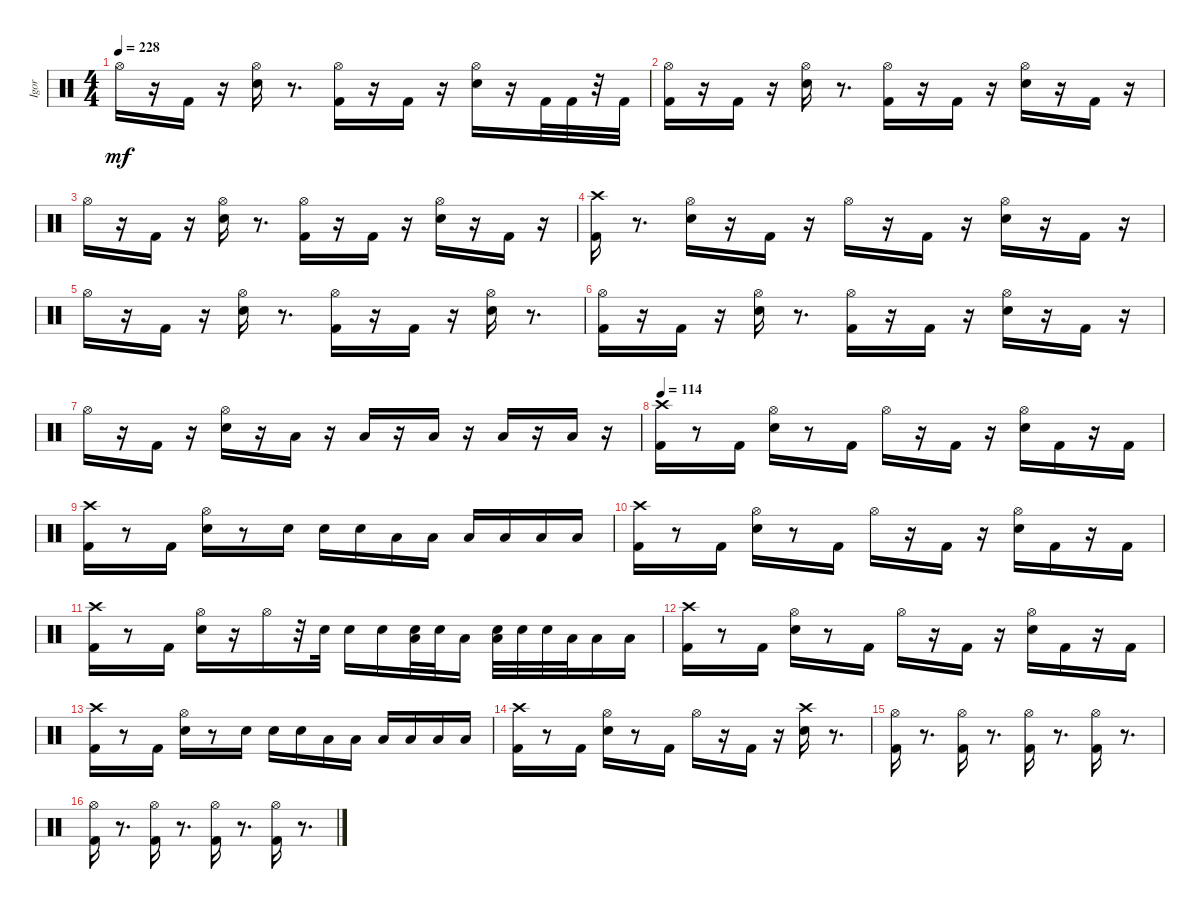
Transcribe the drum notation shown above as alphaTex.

\track ("Igor" "Igor") {instrument percussion}
\staff {score}
\articulation defaults
\ts (4 4)
\tempo 228
\clef neutral
\ks c "Hi-Hat (open)".16{dy mf}
r.16 "Kick (hit) 2".16 r.16 ("Snare (hit) 2" "Hi-Hat (open)").16 r.8{d} ("Kick (hit) 2" "Hi-Hat (open)").16 r.16 "Kick (hit) 2".16 r.16 ("Snare (hit) 2" "Hi-Hat (open)").16 r.16 "Kick (hit) 2".32 "Kick (hit) 2".32 r.32 "Kick (hit) 2".32 |
("Kick (hit) 2" "Hi-Hat (open)").16 r.16 "Kick (hit) 2".16 r.16 ("Snare (hit) 2" "Hi-Hat (open)").16 r.8{d} ("Kick (hit) 2" "Hi-Hat (open)").16 r.16 "Kick (hit) 2".16 r.16 ("Snare (hit) 2" "Hi-Hat (open)").16 r.16 "Kick (hit) 2".16 r.16 |
"Hi-Hat (open)".16 r.16 "Kick (hit) 2".16 r.16 ("Snare (hit) 2" "Hi-Hat (open)").16 r.8{d} ("Kick (hit) 2" "Hi-Hat (open)").16 r.16 "Kick (hit) 2".16 r.16 ("Snare (hit) 2" "Hi-Hat (open)").16 r.16 "Kick (hit) 2".16 r.16 |
("Kick (hit) 2" "Crash high (hit)").16 r.8{d} ("Snare (hit) 2" "Hi-Hat (open)").16 r.16 "Kick (hit) 2".16 r.16 "Hi-Hat (open)".16 r.16 "Kick (hit) 2".16 r.16 ("Snare (hit) 2" "Hi-Hat (open)").16 r.16 "Kick (hit) 2".16 r.16 |
"Hi-Hat (open)".16 r.16 "Kick (hit) 2".16 r.16 ("Snare (hit) 2" "Hi-Hat (open)").16 r.8{d} ("Kick (hit) 2" "Hi-Hat (open)").16 r.16 "Kick (hit) 2".16 r.16 ("Snare (hit) 2" "Hi-Hat (open)").16 r.8{d} |
("Kick (hit) 2" "Hi-Hat (open)").16 r.16 "Kick (hit) 2".16 r.16 ("Snare (hit) 2" "Hi-Hat (open)").16 r.8{d} ("Kick (hit) 2" "Hi-Hat (open)").16 r.16 "Kick (hit) 2".16 r.16 ("Snare (hit) 2" "Hi-Hat (open)").16 r.16 "Kick (hit) 2".16 r.16 |
"Hi-Hat (open)".16 r.16 "Kick (hit) 2".16 r.16 ("Snare (hit) 2" "Hi-Hat (open)").16 r.16 "Low Tom (hit)".16 r.16 "Low Tom (hit)".16 r.16 "Low Tom (hit)".16 r.16 "Low Tom (hit)".16 r.16 "Low Tom (hit)".16 r.16 |
\tempo 114
("Crash high (hit)" "Kick (hit) 2").16 r.8 "Kick (hit) 2".16 ("Snare (hit) 2" "Hi-Hat (open)").16 r.8 "Kick (hit) 2".16 "Hi-Hat (open)".16 r.16 "Kick (hit) 2".16 r.16 ("Hi-Hat (open)" "Snare (hit) 2").16 "Kick (hit) 2".16 r.16 "Kick (hit) 2".16 |
("Kick (hit) 2" "Crash high (hit)").16 r.8 "Kick (hit) 2".16 ("Snare (hit) 2" "Hi-Hat (open)").16 r.8 "Snare (hit) 2".16 "Snare (hit) 2".16 "Snare (hit) 2".16 "Low Tom (hit)".16 "Low Tom (hit)".16 "Low Tom (hit)".16 "Low Tom (hit)".16 "Low Floor Tom (hit)".16 "Low Floor Tom (hit)".16 |
("Crash high (hit)" "Kick (hit) 2").16 r.8 "Kick (hit) 2".16 ("Snare (hit) 2" "Hi-Hat (open)").16 r.8 "Kick (hit) 2".16 "Hi-Hat (open)".16 r.16 "Kick (hit) 2".16 r.16 ("Hi-Hat (open)" "Snare (hit) 2").16 "Kick (hit) 2".16 r.16 "Kick (hit) 2".16 |
("Kick (hit) 2" "Crash high (hit)").16 r.8 "Kick (hit) 2".16 ("Snare (hit) 2" "Hi-Hat (open)").16 r.16 "Hi-Hat (open)".16 r.32 "Snare (hit) 2".32 "Snare (hit) 2".16 "Snare (hit) 2".16 ("Snare (hit) 2" "Low Tom (hit)").32 "Snare (hit) 2".32 "Low Tom (hit)".16 ("Snare (hit) 2" "Low Tom (hit)").32 "Snare (hit) 2".32 "Snare (hit) 2".32 "Low Floor Tom (hit)".32 "Low Floor Tom (hit)".16 "Low Floor Tom (hit)".16 |
("Crash high (hit)" "Kick (hit) 2").16 r.8 "Kick (hit) 2".16 ("Snare (hit) 2" "Hi-Hat (open)").16 r.8 "Kick (hit) 2".16 "Hi-Hat (open)".16 r.16 "Kick (hit) 2".16 r.16 ("Hi-Hat (open)" "Snare (hit) 2").16 "Kick (hit) 2".16 r.16 "Kick (hit) 2".16 |
("Kick (hit) 2" "Crash high (hit)").16 r.8 "Kick (hit) 2".16 ("Snare (hit) 2" "Hi-Hat (open)").16 r.8 "Snare (hit) 2".16 "Snare (hit) 2".16 "Snare (hit) 2".16 "Low Tom (hit)".16 "Low Tom (hit)".16 "Low Tom (hit)".16 "Low Tom (hit)".16 "Low Floor Tom (hit)".16 "Low Floor Tom (hit)".16 |
("Crash high (hit)" "Kick (hit) 2").16 r.8 "Kick (hit) 2".16 ("Snare (hit) 2" "Hi-Hat (open)").16 r.8 "Kick (hit) 2".16 "Hi-Hat (open)".16 r.16 "Kick (hit) 2".16 r.16 ("Snare (hit) 2" "Crash high (hit)").16 r.8{d} |
("Kick (hit) 2" "Hi-Hat (open)").16 r.8{d} ("Kick (hit) 2" "Hi-Hat (open)").16 r.8{d} ("Kick (hit) 2" "Hi-Hat (open)").16 r.8{d} ("Kick (hit) 2" "Hi-Hat (open)").16 r.8{d} |
("Kick (hit) 2" "Hi-Hat (open)").16 r.8{d} ("Kick (hit) 2" "Hi-Hat (open)").16 r.8{d} ("Kick (hit) 2" "Hi-Hat (open)").16 r.8{d} ("Kick (hit) 2" "Hi-Hat (open)").16 r.8{d}
